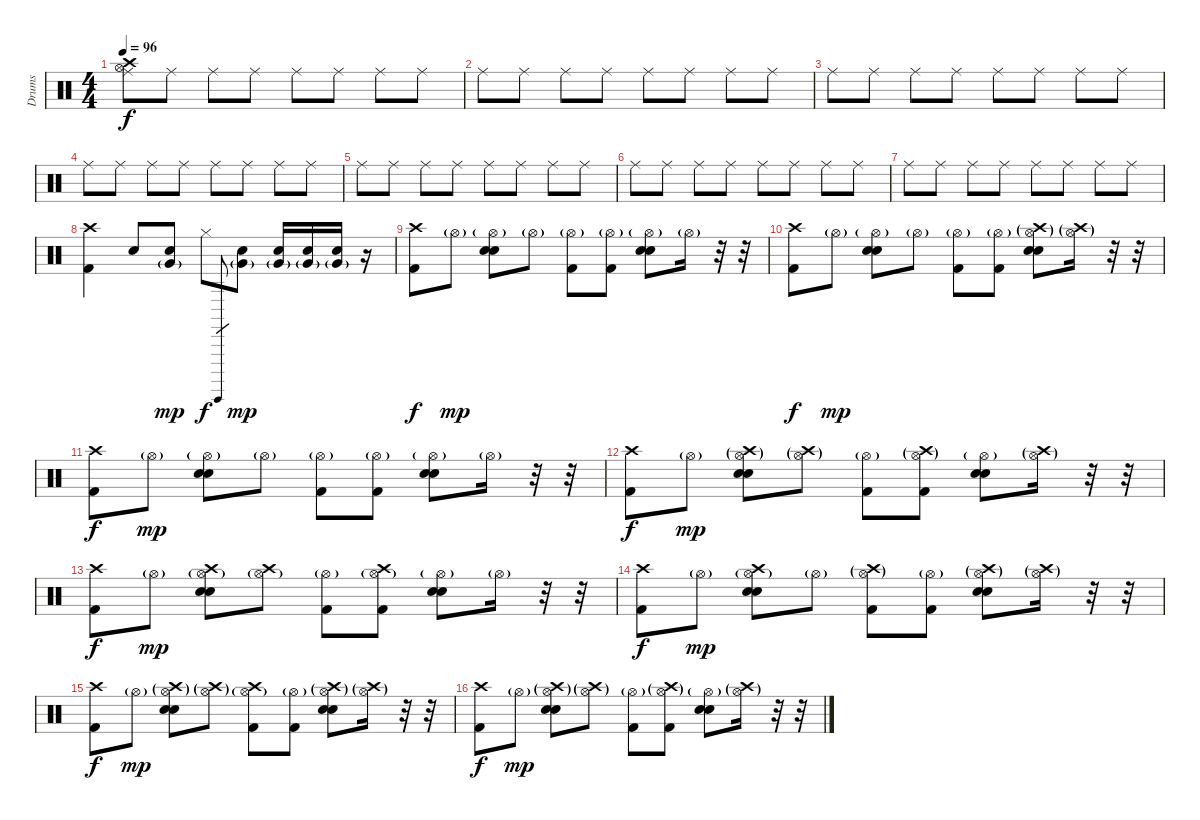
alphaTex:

\track ("Drums" "Drums") {instrument percussion}
\staff {score}
\articulation defaults
\ts (4 4)
\tempo 96
\clef neutral
\ks c
("Crash high (hit)" "Hi-Hat (open)" "Ride (middle)").8{dy f} "Ride (middle)".8 "Ride (middle)".8 "Ride (middle)".8 "Ride (middle)".8 "Ride (middle)".8 "Ride (middle)".8 "Ride (middle)".8 |
"Ride (middle)".8 "Ride (middle)".8 "Ride (middle)".8 "Ride (middle)".8 "Ride (middle)".8 "Ride (middle)".8 "Ride (middle)".8 "Ride (middle)".8 |
"Ride (middle)".8 "Ride (middle)".8 "Ride (middle)".8 "Ride (middle)".8 "Ride (middle)".8 "Ride (middle)".8 "Ride (middle)".8 "Ride (middle)".8 |
"Ride (middle)".8 "Ride (middle)".8 "Ride (middle)".8 "Ride (middle)".8 "Ride (middle)".8 "Ride (middle)".8 "Ride (middle)".8 "Ride (middle)".8 |
"Ride (middle)".8 "Ride (middle)".8 "Ride (middle)".8 "Ride (middle)".8 "Ride (middle)".8 "Ride (middle)".8 "Ride (middle)".8 "Ride (middle)".8 |
"Ride (middle)".8 "Ride (middle)".8 "Ride (middle)".8 "Ride (middle)".8 "Ride (middle)".8 "Ride (middle)".8 "Ride (middle)".8 "Ride (middle)".8 |
"Ride (middle)".8 "Ride (middle)".8 "Ride (middle)".8 "Ride (middle)".8 "Ride (middle)".8 "Ride (middle)".8 "Ride (middle)".8 "Ride (middle)".8 |
("Crash high (hit)" "Kick (hit) 2").4 "Electric Snare (hit)".8 ("Very Low Tom (hit)"{g} "Electric Snare (hit)").8{dy mp} "Hi-Hat (closed)".8{dy f} "Surdo (hit)".8{gr} ("Very Low Tom (hit)"{g} "Electric Snare (hit)").8{dy mp} ("Very Low Tom (hit)"{g} "Electric Snare (hit)").16 ("Very Low Tom (hit)"{g} "Electric Snare (hit)").16 ("Very Low Tom (hit)"{g} "Electric Snare (hit)").16 r.16 |
("Crash high (hit)" "Kick (hit) 2").8{dy f} "Hi-Hat (open)"{g}.8{dy mp} ("Hi-Hat (open)"{g} "Electric Snare (hit)" "Snare (hit) 2").8 "Hi-Hat (open)"{g}.8 ("Hi-Hat (open)"{g} "Kick (hit) 2").8 ("Hi-Hat (open)"{g} "Kick (hit) 2").8 ("Hi-Hat (open)"{g} "Electric Snare (hit)" "Snare (hit) 2").8 "Hi-Hat (open)"{g}.16 r.32 r.32 |
("Crash high (hit)" "Kick (hit) 2").8{dy f} "Hi-Hat (open)"{g}.8{dy mp} ("Hi-Hat (open)"{g} "Electric Snare (hit)" "Snare (hit) 2").8 "Hi-Hat (open)"{g}.8 ("Hi-Hat (open)"{g} "Kick (hit) 2").8 ("Hi-Hat (open)"{g} "Kick (hit) 2").8 ("Hi-Hat (open)"{g} "Crash high (hit)"{g} "Electric Snare (hit)" "Snare (hit) 2").8 ("Hi-Hat (open)"{g} "Crash high (hit)"{g}).16 r.32 r.32 |
("Crash high (hit)" "Kick (hit) 2").8{dy f} "Hi-Hat (open)"{g}.8{dy mp} ("Hi-Hat (open)"{g} "Electric Snare (hit)" "Snare (hit) 2").8 "Hi-Hat (open)"{g}.8 ("Hi-Hat (open)"{g} "Kick (hit) 2").8 ("Hi-Hat (open)"{g} "Kick (hit) 2").8 ("Hi-Hat (open)"{g} "Electric Snare (hit)" "Snare (hit) 2").8 "Hi-Hat (open)"{g}.16 r.32 r.32 |
("Crash high (hit)" "Kick (hit) 2").8{dy f} "Hi-Hat (open)"{g}.8{dy mp} ("Hi-Hat (open)"{g} "Crash high (hit)"{g} "Electric Snare (hit)" "Snare (hit) 2").8 ("Hi-Hat (open)"{g} "Crash high (hit)"{g}).8 ("Hi-Hat (open)"{g} "Kick (hit) 2").8 ("Hi-Hat (open)"{g} "Crash high (hit)"{g} "Kick (hit) 2").8 ("Hi-Hat (open)"{g} "Electric Snare (hit)" "Snare (hit) 2").8 ("Hi-Hat (open)"{g} "Crash high (hit)"{g}).16 r.32 r.32 |
("Crash high (hit)" "Kick (hit) 2").8{dy f} "Hi-Hat (open)"{g}.8{dy mp} ("Hi-Hat (open)"{g} "Crash high (hit)" "Electric Snare (hit)" "Snare (hit) 2").8 ("Hi-Hat (open)"{g} "Crash high (hit)").8 ("Hi-Hat (open)"{g} "Kick (hit) 2").8 ("Hi-Hat (open)"{g} "Crash high (hit)" "Kick (hit) 2").8 ("Hi-Hat (open)"{g} "Electric Snare (hit)" "Snare (hit) 2").8 "Hi-Hat (open)"{g}.16 r.32 r.32 |
("Crash high (hit)" "Kick (hit) 2").8{dy f} "Hi-Hat (open)"{g}.8{dy mp} ("Hi-Hat (open)"{g} "Crash high (hit)" "Electric Snare (hit)" "Snare (hit) 2").8 "Hi-Hat (open)"{g}.8 ("Hi-Hat (open)"{g} "Crash high (hit)"{g} "Kick (hit) 2").8 ("Hi-Hat (open)"{g} "Kick (hit) 2").8 ("Hi-Hat (open)"{g} "Crash high (hit)"{g} "Electric Snare (hit)" "Snare (hit) 2").8 ("Hi-Hat (open)"{g} "Crash high (hit)"{g}).16 r.32 r.32 |
("Crash high (hit)" "Kick (hit) 2").8{dy f} "Hi-Hat (open)"{g}.8{dy mp} ("Hi-Hat (open)"{g} "Crash high (hit)"{g} "Electric Snare (hit)" "Snare (hit) 2").8 ("Hi-Hat (open)"{g} "Crash high (hit)"{g}).8 ("Hi-Hat (open)"{g} "Crash high (hit)" "Kick (hit) 2").8 ("Hi-Hat (open)"{g} "Kick (hit) 2").8 ("Hi-Hat (open)"{g} "Crash high (hit)"{g} "Electric Snare (hit)" "Snare (hit) 2").8 ("Hi-Hat (open)"{g} "Crash high (hit)"{g}).16 r.32 r.32 |
("Crash high (hit)" "Kick (hit) 2").8{dy f} "Hi-Hat (open)"{g}.8{dy mp} ("Hi-Hat (open)"{g} "Crash high (hit)"{g} "Electric Snare (hit)" "Snare (hit) 2").8 ("Hi-Hat (open)"{g} "Crash high (hit)"{g}).8 ("Hi-Hat (open)"{g} "Kick (hit) 2").8 ("Hi-Hat (open)"{g} "Crash high (hit)"{g} "Kick (hit) 2").8 ("Hi-Hat (open)"{g} "Electric Snare (hit)" "Snare (hit) 2").8 ("Hi-Hat (open)"{g} "Crash high (hit)"{g}).16 r.32 r.32
